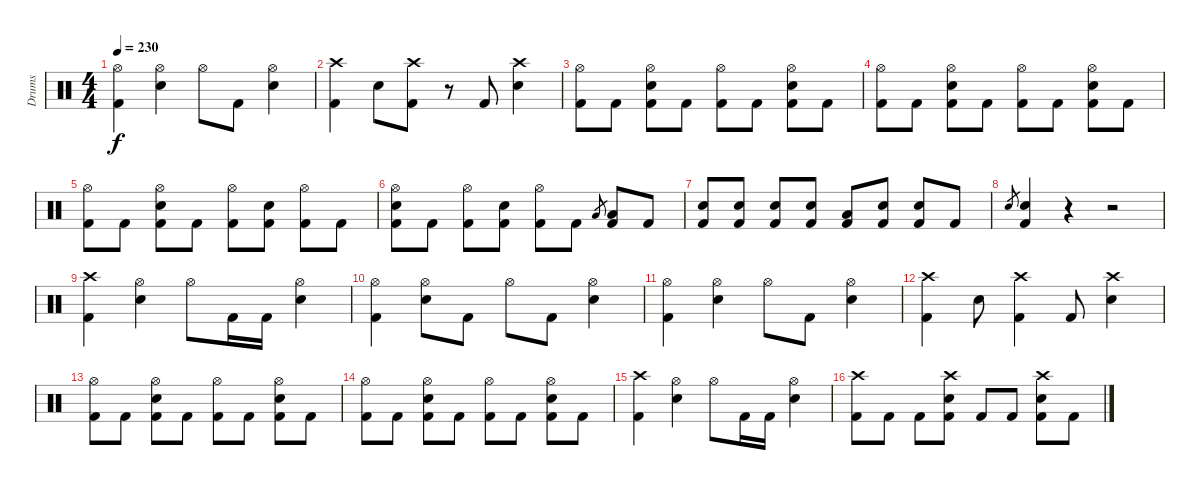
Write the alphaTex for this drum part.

\track ("Drums" "Drums") {instrument percussion}
\staff {score}
\articulation defaults
\ts (4 4)
\tempo 230
\clef neutral
\ks c
("Hi-Hat (open)" "Kick (hit) 2").4{dy f} ("Hi-Hat (open)" "Electric Snare (hit)").4 "Hi-Hat (open)".8 "Kick (hit) 2".8 ("Hi-Hat (open)" "Electric Snare (hit)").4 |
("Crash high (hit)" "Kick (hit) 2").4 "Electric Snare (hit)".8 ("Crash high (hit)" "Kick (hit) 2").8 r.8 "Kick (hit) 2".8 ("Crash high (hit)" "Electric Snare (hit)").4 |
("Hi-Hat (open)" "Kick (hit) 2").8 "Kick (hit) 2".8 ("Hi-Hat (open)" "Electric Snare (hit)" "Kick (hit) 2").8 "Kick (hit) 2".8 ("Hi-Hat (open)" "Kick (hit) 2").8 "Kick (hit) 2".8 ("Hi-Hat (open)" "Electric Snare (hit)" "Kick (hit) 2").8 "Kick (hit) 2".8 |
("Hi-Hat (open)" "Kick (hit) 2").8 "Kick (hit) 2".8 ("Hi-Hat (open)" "Electric Snare (hit)" "Kick (hit) 2").8 "Kick (hit) 2".8 ("Hi-Hat (open)" "Kick (hit) 2").8 "Kick (hit) 2".8 ("Hi-Hat (open)" "Electric Snare (hit)" "Kick (hit) 2").8 "Kick (hit) 2".8 |
("Hi-Hat (open)" "Kick (hit) 2").8 "Kick (hit) 2".8 ("Hi-Hat (open)" "Electric Snare (hit)" "Kick (hit) 2").8 "Kick (hit) 2".8 ("Hi-Hat (open)" "Kick (hit) 2").8 ("Electric Snare (hit)" "Kick (hit) 2").8 ("Hi-Hat (open)" "Kick (hit) 2").8 "Kick (hit) 2".8 |
("Hi-Hat (open)" "Electric Snare (hit)" "Kick (hit) 2").8 "Kick (hit) 2".8 ("Hi-Hat (open)" "Kick (hit) 2").8 ("Electric Snare (hit)" "Kick (hit) 2").8 ("Hi-Hat (open)" "Kick (hit) 2").8 "Kick (hit) 2".8 "Low Tom (hit)".8{gr} ("Low Tom (hit)" "Kick (hit) 2").8 "Kick (hit) 2".8 |
("Electric Snare (hit)" "Kick (hit) 2").8 ("Electric Snare (hit)" "Kick (hit) 2").8 ("Electric Snare (hit)" "Kick (hit) 2").8 ("Electric Snare (hit)" "Kick (hit) 2").8 ("Low Tom (hit)" "Kick (hit) 2").8 ("Electric Snare (hit)" "Kick (hit) 2").8 ("Electric Snare (hit)" "Kick (hit) 2").8 "Kick (hit) 2".8 |
"Electric Snare (hit)".8{gr} ("Electric Snare (hit)" "Kick (hit) 2").4 r.4 r.2 |
("Crash high (hit)" "Kick (hit) 2").4 ("Hi-Hat (open)" "Electric Snare (hit)").4 "Hi-Hat (open)".8 "Kick (hit) 2".16 "Kick (hit) 2".16 ("Hi-Hat (open)" "Electric Snare (hit)").4 |
("Hi-Hat (open)" "Kick (hit) 2").4 ("Hi-Hat (open)" "Electric Snare (hit)").8 "Kick (hit) 2".8 "Hi-Hat (open)".8 "Kick (hit) 2".8 ("Hi-Hat (open)" "Electric Snare (hit)").4 |
("Hi-Hat (open)" "Kick (hit) 2").4 ("Hi-Hat (open)" "Electric Snare (hit)").4 "Hi-Hat (open)".8 "Kick (hit) 2".8 ("Hi-Hat (open)" "Electric Snare (hit)").4 |
("Crash high (hit)" "Kick (hit) 2").4 "Electric Snare (hit)".8 ("Crash high (hit)" "Kick (hit) 2").4 "Kick (hit) 2".8 ("Crash high (hit)" "Electric Snare (hit)").4 |
("Hi-Hat (open)" "Kick (hit) 2").8 "Kick (hit) 2".8 ("Hi-Hat (open)" "Electric Snare (hit)" "Kick (hit) 2").8 "Kick (hit) 2".8 ("Hi-Hat (open)" "Kick (hit) 2").8 "Kick (hit) 2".8 ("Hi-Hat (open)" "Electric Snare (hit)" "Kick (hit) 2").8 "Kick (hit) 2".8 |
("Hi-Hat (open)" "Kick (hit) 2").8 "Kick (hit) 2".8 ("Hi-Hat (open)" "Electric Snare (hit)" "Kick (hit) 2").8 "Kick (hit) 2".8 ("Hi-Hat (open)" "Kick (hit) 2").8 "Kick (hit) 2".8 ("Hi-Hat (open)" "Electric Snare (hit)" "Kick (hit) 2").8 "Kick (hit) 2".8 |
("Crash high (hit)" "Kick (hit) 2").4 ("Hi-Hat (open)" "Electric Snare (hit)").4 "Hi-Hat (open)".8 "Kick (hit) 2".16 "Kick (hit) 2".16 ("Hi-Hat (open)" "Electric Snare (hit)").4 |
("Crash high (hit)" "Kick (hit) 2").8 "Kick (hit) 2".8 "Kick (hit) 2".8 ("Crash high (hit)" "Electric Snare (hit)" "Kick (hit) 2").8 "Kick (hit) 2".8 "Kick (hit) 2".8 ("Crash high (hit)" "Electric Snare (hit)" "Kick (hit) 2").8 "Kick (hit) 2".8
